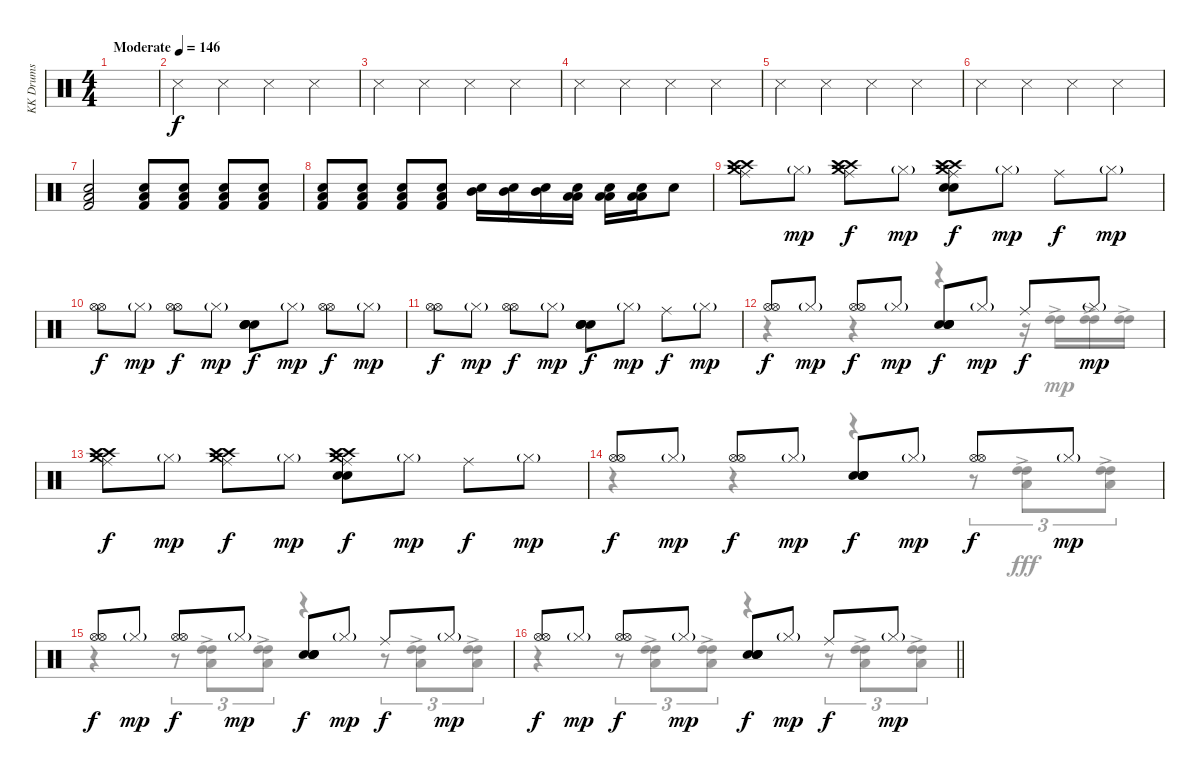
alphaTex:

\track ("KK Drums" "KK Drums") {instrument percussion}
\staff {score}
\articulation defaults
\voice
\ts (4 4)
\tempo (146 "Moderate")
\clef neutral
\ks c
|
"Metronome (hit)".4 "Metronome (hit)".4 "Metronome (hit)".4 "Metronome (hit)".4 |
"Metronome (hit)".4 "Metronome (hit)".4 "Metronome (hit)".4 "Metronome (hit)".4 |
"Metronome (hit)".4 "Metronome (hit)".4 "Metronome (hit)".4 "Metronome (hit)".4 |
"Metronome (hit)".4 "Metronome (hit)".4 "Metronome (hit)".4 "Metronome (hit)".4 |
"Metronome (hit)".4 "Metronome (hit)".4 "Metronome (hit)".4 "Metronome (hit)".4 |
("Kick (hit) 2" "Snare (hit) 2" "Low Tom (hit)").2 ("Kick (hit) 2" "Snare (hit) 2" "Low Tom (hit)").8 ("Kick (hit) 2" "Snare (hit) 2" "Low Tom (hit)").8 ("Kick (hit) 2" "Snare (hit) 2" "Low Tom (hit)").8 ("Kick (hit) 2" "Snare (hit) 2" "Low Tom (hit)").8 |
("Kick (hit) 2" "Snare (hit) 2" "Low Tom (hit)").8 ("Kick (hit) 2" "Snare (hit) 2" "Low Tom (hit)").8 ("Kick (hit) 2" "Snare (hit) 2" "Low Tom (hit)").8 ("Kick (hit) 2" "Snare (hit) 2" "Low Tom (hit)").8 ("Snare (hit) 2" "Mid Tom (hit)").16 ("Snare (hit) 2" "Mid Tom (hit)").16 ("Snare (hit) 2" "Mid Tom (hit)").16 ("Snare (hit) 2" "Low Tom (hit)" "Low Tom (hit)").16 ("Snare (hit) 2" "Low Tom (hit)" "Low Tom (hit)").16 ("Snare (hit) 2" "Low Tom (hit)" "Low Tom (hit)").16 "Snare (hit) 2".8 |
("Crash high (hit)" "Ride (middle)" "Crash medium (hit)" "Crash high (hit)").8 "Hi-Hat (closed)"{g}.8{dy mp} ("Crash high (hit)" "Ride (middle)" "Crash medium (hit)" "Crash high (hit)").8{dy f} "Hi-Hat (closed)"{g}.8{dy mp} ("Crash high (hit)" "Ride (middle)" "Snare (hit) 2" "Snare (hit) 2" "Crash medium (hit)" "Crash high (hit)").8{dy f} "Hi-Hat (closed)"{g}.8{dy mp} "Ride (middle)".8{dy f} "Hi-Hat (closed)"{g}.8{dy mp} |
("Hi-Hat (open)" "Hi-Hat (open)").8{dy f} "Hi-Hat (closed)"{g}.8{dy mp} ("Hi-Hat (open)" "Hi-Hat (open)").8{dy f} "Hi-Hat (closed)"{g}.8{dy mp} ("Snare (hit) 2" "Snare (hit) 2" "Snare (hit) 2" "Snare (hit) 2").8{dy f} "Hi-Hat (closed)"{g}.8{dy mp} ("Hi-Hat (open)" "Hi-Hat (open)").8{dy f} "Hi-Hat (closed)"{g}.8{dy mp} |
("Hi-Hat (open)" "Hi-Hat (open)").8{dy f} "Hi-Hat (closed)"{g}.8{dy mp} ("Hi-Hat (open)" "Hi-Hat (open)").8{dy f} "Hi-Hat (closed)"{g}.8{dy mp} ("Snare (hit) 2" "Snare (hit) 2" "Snare (hit) 2" "Snare (hit) 2").8{dy f} "Hi-Hat (closed)"{g}.8{dy mp} "Ride (middle)".8{dy f} "Hi-Hat (closed)"{g}.8{dy mp} |
("Hi-Hat (open)" "Hi-Hat (open)").8{dy f} "Hi-Hat (closed)"{g}.8{dy mp} ("Hi-Hat (open)" "Hi-Hat (open)").8{dy f} "Hi-Hat (closed)"{g}.8{dy mp} ("Snare (hit) 2" "Snare (hit) 2" "Snare (hit) 2" "Snare (hit) 2").8{dy f} "Hi-Hat (closed)"{g}.8{dy mp} "Ride (middle)".8{dy f} "Hi-Hat (closed)"{g}.8{dy mp} |
("Crash high (hit)" "Ride (middle)" "Crash medium (hit)" "Crash high (hit)").8{dy f} "Hi-Hat (closed)"{g}.8{dy mp} ("Crash high (hit)" "Ride (middle)" "Crash medium (hit)" "Crash high (hit)").8{dy f} "Hi-Hat (closed)"{g}.8{dy mp} ("Crash high (hit)" "Ride (middle)" "Snare (hit) 2" "Snare (hit) 2" "Crash medium (hit)" "Crash high (hit)").8{dy f} "Hi-Hat (closed)"{g}.8{dy mp} "Ride (middle)".8{dy f} "Hi-Hat (closed)"{g}.8{dy mp} |
("Hi-Hat (open)" "Hi-Hat (open)").8{dy f} "Hi-Hat (closed)"{g}.8{dy mp} ("Hi-Hat (open)" "Hi-Hat (open)").8{dy f} "Hi-Hat (closed)"{g}.8{dy mp} ("Snare (hit) 2" "Snare (hit) 2" "Snare (hit) 2" "Snare (hit) 2").8{dy f} "Hi-Hat (closed)"{g}.8{dy mp} ("Hi-Hat (open)" "Hi-Hat (open)").8{dy f} "Hi-Hat (closed)"{g}.8{dy mp} |
("Hi-Hat (open)" "Hi-Hat (open)").8{dy f} "Hi-Hat (closed)"{g}.8{dy mp} ("Hi-Hat (open)" "Hi-Hat (open)").8{dy f} "Hi-Hat (closed)"{g}.8{dy mp} ("Snare (hit) 2" "Snare (hit) 2" "Snare (hit) 2" "Snare (hit) 2").8{dy f} "Hi-Hat (closed)"{g}.8{dy mp} "Ride (middle)".8{dy f} "Hi-Hat (closed)"{g}.8{dy mp} |
\barLineRight lightlight
("Hi-Hat (open)" "Hi-Hat (open)").8{dy f} "Hi-Hat (closed)"{g}.8{dy mp} ("Hi-Hat (open)" "Hi-Hat (open)").8{dy f} "Hi-Hat (closed)"{g}.8{dy mp} ("Snare (hit) 2" "Snare (hit) 2" "Snare (hit) 2" "Snare (hit) 2").8{dy f} "Hi-Hat (closed)"{g}.8{dy mp} "Ride (middle)".8{dy f} "Hi-Hat (closed)"{g}.8{dy mp}
\voice
\clef neutral
\ottava regular
\simile none
\ks c
|
|
|
|
|
|
|
|
|
|
|
r.4 r.4 r.4 r.16 ("High Tom (hit)"{ac} "High Tom (hit)"{ac}).16 ("High Tom (hit)"{ac} "High Tom (hit)"{ac}).16 ("High Tom (hit)"{ac} "High Tom (hit)"{ac}).16 |
|
r.4 r.4 r.4 r.8{tu (3 2)} ("Low Tom (hit)"{ac} "High Tom (hit)"{ac} "High Tom (hit)"{ac}).8{tu (3 2) dy fff} ("Low Tom (hit)"{ac} "High Tom (hit)"{ac} "High Tom (hit)"{ac}).8{tu (3 2)} |
r.4 r.8{tu (3 2)} ("Low Tom (hit)"{ac} "High Tom (hit)"{ac} "High Tom (hit)"{ac}).8{tu (3 2)} ("Low Tom (hit)"{ac} "High Tom (hit)"{ac} "High Tom (hit)"{ac}).8{tu (3 2)} r.4 r.8{tu (3 2)} ("Low Tom (hit)"{ac} "High Tom (hit)"{ac} "High Tom (hit)"{ac}).8{tu (3 2)} ("Low Tom (hit)"{ac} "High Tom (hit)"{ac} "High Tom (hit)"{ac}).8{tu (3 2)} |
\barLineRight lightlight
r.4 r.8{tu (3 2)} ("Low Tom (hit)"{ac} "High Tom (hit)"{ac} "High Tom (hit)"{ac}).8{tu (3 2)} ("Low Tom (hit)"{ac} "High Tom (hit)"{ac} "High Tom (hit)"{ac}).8{tu (3 2)} r.4 r.8{tu (3 2)} ("Low Tom (hit)"{ac} "High Tom (hit)"{ac} "High Tom (hit)"{ac}).8{tu (3 2)} ("Low Tom (hit)"{ac} "High Tom (hit)"{ac} "High Tom (hit)"{ac}).8{tu (3 2)}
